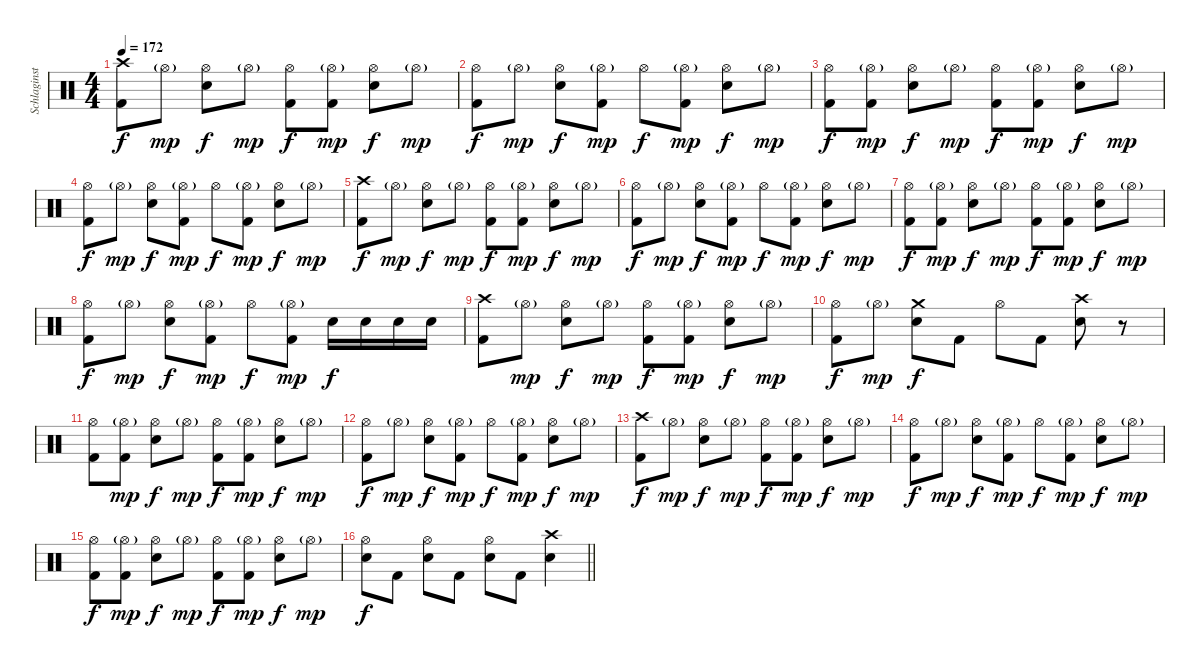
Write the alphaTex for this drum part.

\track ("Schlaginstrumente - Auswahl" "Schlaginst") {instrument percussion}
\staff {score}
\articulation defaults
\ts (4 4)
\tempo 172
\clef neutral
\ks c
("Crash high (hit)" "Kick (hit) 2").8{dy f} "Hi-Hat (open)"{g}.8{dy mp} ("Hi-Hat (open)" "Snare (hit) 2").8{dy f} "Hi-Hat (open)"{g}.8{dy mp} ("Hi-Hat (open)" "Kick (hit) 2").8{dy f} ("Hi-Hat (open)"{g} "Kick (hit) 2").8{dy mp} ("Hi-Hat (open)" "Snare (hit) 2").8{dy f} "Hi-Hat (open)"{g}.8{dy mp} |
("Hi-Hat (open)" "Kick (hit) 2").8{dy f} "Hi-Hat (open)"{g}.8{dy mp} ("Hi-Hat (open)" "Snare (hit) 2").8{dy f} ("Hi-Hat (open)"{g} "Kick (hit) 2").8{dy mp} "Hi-Hat (open)".8{dy f} ("Hi-Hat (open)"{g} "Kick (hit) 2").8{dy mp} ("Hi-Hat (open)" "Snare (hit) 2").8{dy f} "Hi-Hat (open)"{g}.8{dy mp} |
("Hi-Hat (open)" "Kick (hit) 2").8{dy f} ("Hi-Hat (open)"{g} "Kick (hit) 2").8{dy mp} ("Hi-Hat (open)" "Snare (hit) 2").8{dy f} "Hi-Hat (open)"{g}.8{dy mp} ("Hi-Hat (open)" "Kick (hit) 2").8{dy f} ("Hi-Hat (open)"{g} "Kick (hit) 2").8{dy mp} ("Hi-Hat (open)" "Snare (hit) 2").8{dy f} "Hi-Hat (open)"{g}.8{dy mp} |
("Hi-Hat (open)" "Kick (hit) 2").8{dy f} "Hi-Hat (open)"{g}.8{dy mp} ("Hi-Hat (open)" "Snare (hit) 2").8{dy f} ("Hi-Hat (open)"{g} "Kick (hit) 2").8{dy mp} "Hi-Hat (open)".8{dy f} ("Hi-Hat (open)"{g} "Kick (hit) 2").8{dy mp} ("Hi-Hat (open)" "Snare (hit) 2").8{dy f} "Hi-Hat (open)"{g}.8{dy mp} |
("Crash high (hit)" "Kick (hit) 2").8{dy f} "Hi-Hat (open)"{g}.8{dy mp} ("Hi-Hat (open)" "Snare (hit) 2").8{dy f} "Hi-Hat (open)"{g}.8{dy mp} ("Hi-Hat (open)" "Kick (hit) 2").8{dy f} ("Hi-Hat (open)"{g} "Kick (hit) 2").8{dy mp} ("Hi-Hat (open)" "Snare (hit) 2").8{dy f} "Hi-Hat (open)"{g}.8{dy mp} |
("Hi-Hat (open)" "Kick (hit) 2").8{dy f} "Hi-Hat (open)"{g}.8{dy mp} ("Hi-Hat (open)" "Snare (hit) 2").8{dy f} ("Hi-Hat (open)"{g} "Kick (hit) 2").8{dy mp} "Hi-Hat (open)".8{dy f} ("Hi-Hat (open)"{g} "Kick (hit) 2").8{dy mp} ("Hi-Hat (open)" "Snare (hit) 2").8{dy f} "Hi-Hat (open)"{g}.8{dy mp} |
("Hi-Hat (open)" "Kick (hit) 2").8{dy f} ("Hi-Hat (open)"{g} "Kick (hit) 2").8{dy mp} ("Hi-Hat (open)" "Snare (hit) 2").8{dy f} "Hi-Hat (open)"{g}.8{dy mp} ("Hi-Hat (open)" "Kick (hit) 2").8{dy f} ("Hi-Hat (open)"{g} "Kick (hit) 2").8{dy mp} ("Hi-Hat (open)" "Snare (hit) 2").8{dy f} "Hi-Hat (open)"{g}.8{dy mp} |
("Hi-Hat (open)" "Kick (hit) 2").8{dy f} "Hi-Hat (open)"{g}.8{dy mp} ("Hi-Hat (open)" "Snare (hit) 2").8{dy f} ("Hi-Hat (open)"{g} "Kick (hit) 2").8{dy mp} "Hi-Hat (open)".8{dy f} ("Hi-Hat (open)"{g} "Kick (hit) 2").8{dy mp} "Snare (hit) 2".16{dy f} "Snare (hit) 2".16 "Snare (hit) 2".16 "Snare (hit) 2".16 |
("Crash high (hit)" "Kick (hit) 2").8 "Hi-Hat (open)"{g}.8{dy mp} ("Hi-Hat (open)" "Snare (hit) 2").8{dy f} "Hi-Hat (open)"{g}.8{dy mp} ("Hi-Hat (open)" "Kick (hit) 2").8{dy f} ("Hi-Hat (open)"{g} "Kick (hit) 2").8{dy mp} ("Hi-Hat (open)" "Snare (hit) 2").8{dy f} "Hi-Hat (open)"{g}.8{dy mp} |
("Hi-Hat (open)" "Kick (hit) 2").8{dy f} "Hi-Hat (open)"{g}.8{dy mp} ("Crash medium (hit)" "Snare (hit) 2").8{dy f} "Kick (hit) 2".8 "Hi-Hat (open)".8 "Kick (hit) 2".8 ("Crash high (hit)" "Snare (hit) 2").8 r.8 |
("Hi-Hat (open)" "Kick (hit) 2").8 ("Hi-Hat (open)"{g} "Kick (hit) 2").8{dy mp} ("Hi-Hat (open)" "Snare (hit) 2").8{dy f} "Hi-Hat (open)"{g}.8{dy mp} ("Hi-Hat (open)" "Kick (hit) 2").8{dy f} ("Hi-Hat (open)"{g} "Kick (hit) 2").8{dy mp} ("Hi-Hat (open)" "Snare (hit) 2").8{dy f} "Hi-Hat (open)"{g}.8{dy mp} |
("Hi-Hat (open)" "Kick (hit) 2").8{dy f} "Hi-Hat (open)"{g}.8{dy mp} ("Hi-Hat (open)" "Snare (hit) 2").8{dy f} ("Hi-Hat (open)"{g} "Kick (hit) 2").8{dy mp} "Hi-Hat (open)".8{dy f} ("Hi-Hat (open)"{g} "Kick (hit) 2").8{dy mp} ("Hi-Hat (open)" "Snare (hit) 2").8{dy f} "Hi-Hat (open)"{g}.8{dy mp} |
("Crash high (hit)" "Kick (hit) 2").8{dy f} "Hi-Hat (open)"{g}.8{dy mp} ("Hi-Hat (open)" "Snare (hit) 2").8{dy f} "Hi-Hat (open)"{g}.8{dy mp} ("Hi-Hat (open)" "Kick (hit) 2").8{dy f} ("Hi-Hat (open)"{g} "Kick (hit) 2").8{dy mp} ("Hi-Hat (open)" "Snare (hit) 2").8{dy f} "Hi-Hat (open)"{g}.8{dy mp} |
("Hi-Hat (open)" "Kick (hit) 2").8{dy f} "Hi-Hat (open)"{g}.8{dy mp} ("Hi-Hat (open)" "Snare (hit) 2").8{dy f} ("Hi-Hat (open)"{g} "Kick (hit) 2").8{dy mp} "Hi-Hat (open)".8{dy f} ("Hi-Hat (open)"{g} "Kick (hit) 2").8{dy mp} ("Hi-Hat (open)" "Snare (hit) 2").8{dy f} "Hi-Hat (open)"{g}.8{dy mp} |
("Hi-Hat (open)" "Kick (hit) 2").8{dy f} ("Hi-Hat (open)"{g} "Kick (hit) 2").8{dy mp} ("Hi-Hat (open)" "Snare (hit) 2").8{dy f} "Hi-Hat (open)"{g}.8{dy mp} ("Hi-Hat (open)" "Kick (hit) 2").8{dy f} ("Hi-Hat (open)"{g} "Kick (hit) 2").8{dy mp} ("Hi-Hat (open)" "Snare (hit) 2").8{dy f} "Hi-Hat (open)"{g}.8{dy mp} |
\barLineRight lightlight
("Hi-Hat (open)" "Snare (hit) 2").8{dy f} "Kick (hit) 2".8 ("Hi-Hat (open)" "Snare (hit) 2").8 "Kick (hit) 2".8 ("Hi-Hat (open)" "Snare (hit) 2").8 "Kick (hit) 2".8 ("Crash high (hit)" "Snare (hit) 2").4
